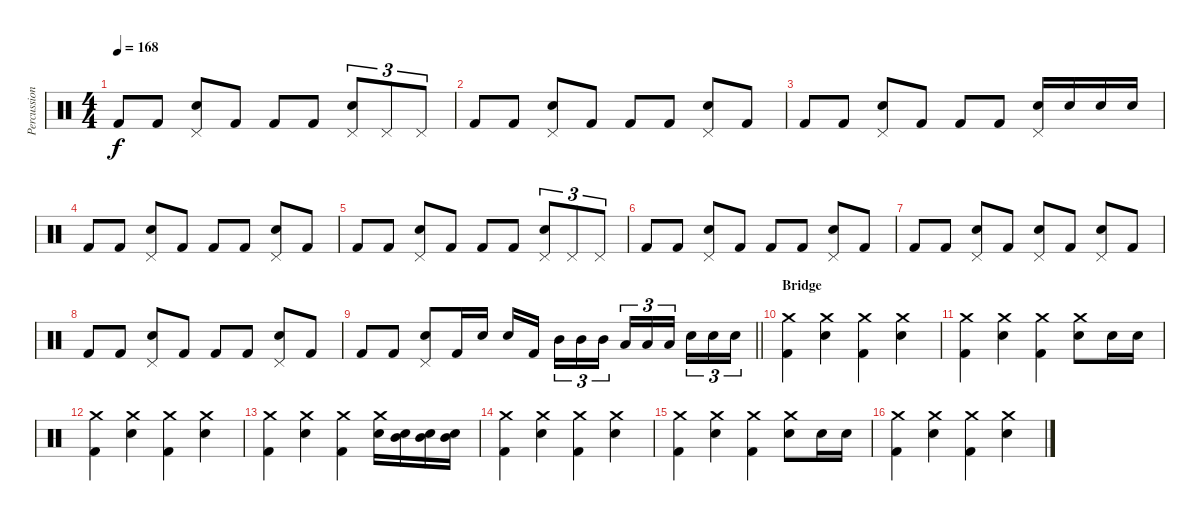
\track ("Percussion" "Percussion") {instrument percussion}
\staff {score}
\articulation defaults
\ts (4 4)
\tempo 168
\clef neutral
\ks c "Kick (hit) 2".8{dy f} "Kick (hit) 2".8
("Pedal Hi-Hat (hit)" "Electric Snare (hit)").8 "Kick (hit) 2".8 "Kick (hit) 2".8 "Kick (hit) 2".8 ("Pedal Hi-Hat (hit)" "Electric Snare (hit)").8{tu (3 2)} "Pedal Hi-Hat (hit)".8{tu (3 2)} "Pedal Hi-Hat (hit)".8{tu (3 2)} |
"Kick (hit) 2".8 "Kick (hit) 2".8 ("Pedal Hi-Hat (hit)" "Electric Snare (hit)").8 "Kick (hit) 2".8 "Kick (hit) 2".8 "Kick (hit) 2".8 ("Pedal Hi-Hat (hit)" "Electric Snare (hit)").8 "Kick (hit) 2".8 |
"Kick (hit) 2".8 "Kick (hit) 2".8 ("Pedal Hi-Hat (hit)" "Electric Snare (hit)").8 "Kick (hit) 2".8 "Kick (hit) 2".8 "Kick (hit) 2".8 ("Pedal Hi-Hat (hit)" "Electric Snare (hit)").16 "Electric Snare (hit)".16 "Electric Snare (hit)".16 "Electric Snare (hit)".16 |
"Kick (hit) 2".8 "Kick (hit) 2".8 ("Pedal Hi-Hat (hit)" "Electric Snare (hit)").8 "Kick (hit) 2".8 "Kick (hit) 2".8 "Kick (hit) 2".8 ("Pedal Hi-Hat (hit)" "Electric Snare (hit)").8 "Kick (hit) 2".8 |
"Kick (hit) 2".8 "Kick (hit) 2".8 ("Pedal Hi-Hat (hit)" "Electric Snare (hit)").8 "Kick (hit) 2".8 "Kick (hit) 2".8 "Kick (hit) 2".8 ("Pedal Hi-Hat (hit)" "Electric Snare (hit)").8{tu (3 2)} "Pedal Hi-Hat (hit)".8{tu (3 2)} "Pedal Hi-Hat (hit)".8{tu (3 2)} |
"Kick (hit) 2".8 "Kick (hit) 2".8 ("Pedal Hi-Hat (hit)" "Electric Snare (hit)").8 "Kick (hit) 2".8 "Kick (hit) 2".8 "Kick (hit) 2".8 ("Pedal Hi-Hat (hit)" "Electric Snare (hit)").8 "Kick (hit) 2".8 |
"Kick (hit) 2".8 "Kick (hit) 2".8 ("Pedal Hi-Hat (hit)" "Electric Snare (hit)").8 "Kick (hit) 2".8 ("Pedal Hi-Hat (hit)" "Electric Snare (hit)").8 "Kick (hit) 2".8 ("Pedal Hi-Hat (hit)" "Electric Snare (hit)").8 "Kick (hit) 2".8 |
"Kick (hit) 2".8 "Kick (hit) 2".8 ("Pedal Hi-Hat (hit)" "Electric Snare (hit)").8 "Kick (hit) 2".8 "Kick (hit) 2".8 "Kick (hit) 2".8 ("Pedal Hi-Hat (hit)" "Electric Snare (hit)").8 "Kick (hit) 2".8 |
\barLineRight lightlight "Kick (hit) 2".8 "Kick (hit) 2".8
("Pedal Hi-Hat (hit)" "Electric Snare (hit)").8 "Kick (hit) 2".16 "Electric Snare (hit)".16 "Electric Snare (hit)".16 "Kick (hit) 2".16{beam splitsecondary} "Mid Tom (hit)".16{tu (3 2)} "Mid Tom (hit)".16{tu (3 2)} "Mid Tom (hit)".16{tu (3 2)} "Low Tom (hit)".16{tu (3 2)} "Low Tom (hit)".16{tu (3 2)} "Low Tom (hit)".16{tu (3 2) beam splitsecondary} "Electric Snare (hit)".16{tu (3 2)} "Electric Snare (hit)".16{tu (3 2)} "Electric Snare (hit)".16{tu (3 2)} |
\section ("" "Bridge")
("Crash medium (hit)" "Kick (hit) 2").4 ("Crash medium (hit)" "Electric Snare (hit)").4 ("Crash medium (hit)" "Kick (hit) 2").4 ("Crash medium (hit)" "Electric Snare (hit)").4 |
("Crash medium (hit)" "Kick (hit) 2").4 ("Crash medium (hit)" "Electric Snare (hit)").4 ("Crash medium (hit)" "Kick (hit) 2").4 ("Crash medium (hit)" "Electric Snare (hit)").8 "Electric Snare (hit)".16 "Electric Snare (hit)".16 |
("Crash medium (hit)" "Kick (hit) 2").4 ("Crash medium (hit)" "Electric Snare (hit)").4 ("Crash medium (hit)" "Kick (hit) 2").4 ("Crash medium (hit)" "Electric Snare (hit)").4 |
("Crash medium (hit)" "Kick (hit) 2").4 ("Crash medium (hit)" "Electric Snare (hit)").4 ("Crash medium (hit)" "Kick (hit) 2").4 ("Crash medium (hit)" "Electric Snare (hit)").16 ("Mid Tom (hit)" "Electric Snare (hit)").16 ("Mid Tom (hit)" "Electric Snare (hit)").16 ("Mid Tom (hit)" "Electric Snare (hit)").16 |
("Crash medium (hit)" "Kick (hit) 2").4 ("Crash medium (hit)" "Electric Snare (hit)").4 ("Crash medium (hit)" "Kick (hit) 2").4 ("Crash medium (hit)" "Electric Snare (hit)").4 |
("Crash medium (hit)" "Kick (hit) 2").4 ("Crash medium (hit)" "Electric Snare (hit)").4 ("Crash medium (hit)" "Kick (hit) 2").4 ("Crash medium (hit)" "Electric Snare (hit)").8 "Electric Snare (hit)".16 "Electric Snare (hit)".16 |
("Crash medium (hit)" "Kick (hit) 2").4 ("Crash medium (hit)" "Electric Snare (hit)").4 ("Crash medium (hit)" "Kick (hit) 2").4 ("Crash medium (hit)" "Electric Snare (hit)").4
